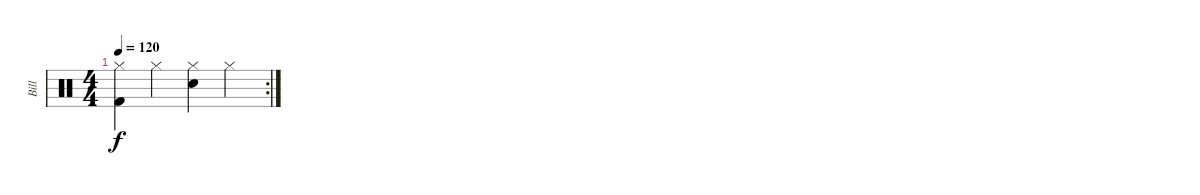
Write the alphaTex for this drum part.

\track ("Bill" "Bill") {instrument percussion}
\staff {score}
\articulation defaults
\rc 2
\ts (4 4)
\tempo 120
\clef neutral
\ks c
("Kick (hit) 2" "Hi-Hat (closed)").4{dy f} "Hi-Hat (closed)".4 ("Snare (hit) 2" "Hi-Hat (closed)").4 "Hi-Hat (closed)".4
